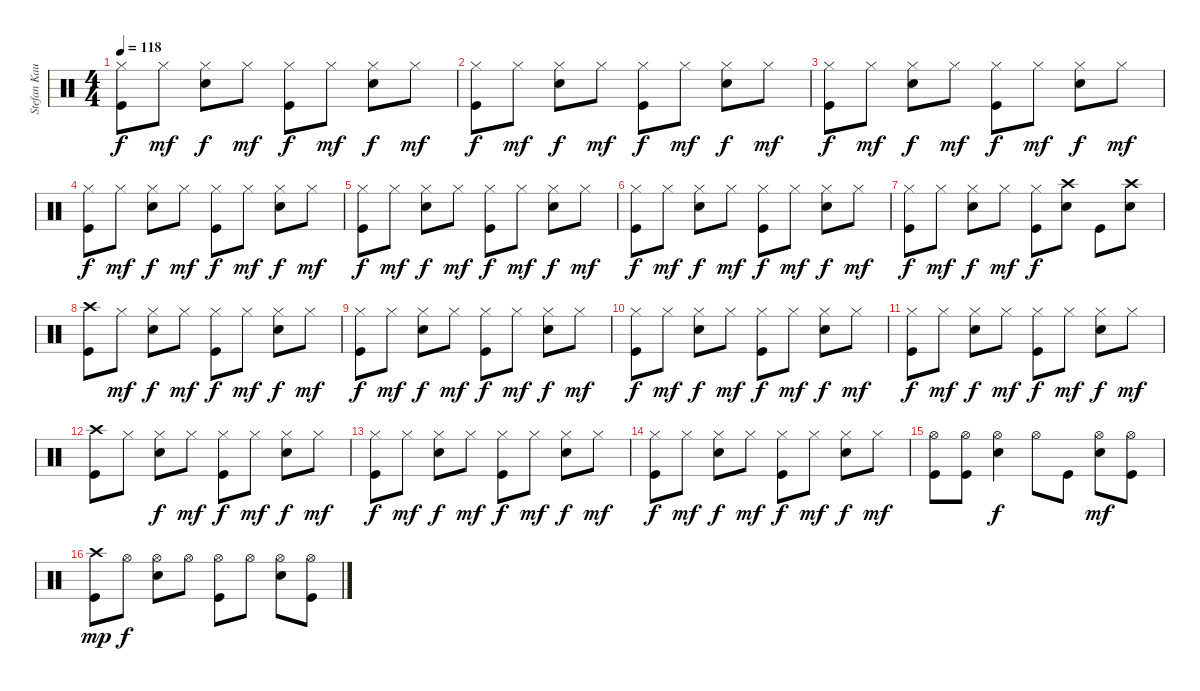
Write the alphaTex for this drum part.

\track ("Stefan Kaufmann" "Stefan Kau") {instrument percussion}
\staff {score}
\articulation defaults
\ts (4 4)
\tempo 118
\clef neutral
\ks c
("Hi-Hat (closed)" "Kick (hit)").8{dy f} "Hi-Hat (closed)".8{dy mf} ("Hi-Hat (closed)" "Snare (hit) 2").8{dy f} "Hi-Hat (closed)".8{dy mf} ("Hi-Hat (closed)" "Kick (hit)").8{dy f} "Hi-Hat (closed)".8{dy mf} ("Hi-Hat (closed)" "Snare (hit) 2").8{dy f} "Hi-Hat (closed)".8{dy mf} |
("Hi-Hat (closed)" "Kick (hit)").8{dy f} "Hi-Hat (closed)".8{dy mf} ("Hi-Hat (closed)" "Snare (hit) 2").8{dy f} "Hi-Hat (closed)".8{dy mf} ("Hi-Hat (closed)" "Kick (hit)").8{dy f} "Hi-Hat (closed)".8{dy mf} ("Hi-Hat (closed)" "Snare (hit) 2").8{dy f} "Hi-Hat (closed)".8{dy mf} |
("Hi-Hat (closed)" "Kick (hit)").8{dy f} "Hi-Hat (closed)".8{dy mf} ("Hi-Hat (closed)" "Snare (hit) 2").8{dy f} "Hi-Hat (closed)".8{dy mf} ("Hi-Hat (closed)" "Kick (hit)").8{dy f} "Hi-Hat (closed)".8{dy mf} ("Hi-Hat (closed)" "Snare (hit) 2").8{dy f} "Hi-Hat (closed)".8{dy mf} |
("Hi-Hat (closed)" "Kick (hit)").8{dy f} "Hi-Hat (closed)".8{dy mf} ("Hi-Hat (closed)" "Snare (hit) 2").8{dy f} "Hi-Hat (closed)".8{dy mf} ("Hi-Hat (closed)" "Kick (hit)").8{dy f} "Hi-Hat (closed)".8{dy mf} ("Hi-Hat (closed)" "Snare (hit) 2").8{dy f} "Hi-Hat (closed)".8{dy mf} |
("Hi-Hat (closed)" "Kick (hit)").8{dy f} "Hi-Hat (closed)".8{dy mf} ("Hi-Hat (closed)" "Snare (hit) 2").8{dy f} "Hi-Hat (closed)".8{dy mf} ("Hi-Hat (closed)" "Kick (hit)").8{dy f} "Hi-Hat (closed)".8{dy mf} ("Hi-Hat (closed)" "Snare (hit) 2").8{dy f} "Hi-Hat (closed)".8{dy mf} |
("Hi-Hat (closed)" "Kick (hit)").8{dy f} "Hi-Hat (closed)".8{dy mf} ("Hi-Hat (closed)" "Snare (hit) 2").8{dy f} "Hi-Hat (closed)".8{dy mf} ("Hi-Hat (closed)" "Kick (hit)").8{dy f} "Hi-Hat (closed)".8{dy mf} ("Hi-Hat (closed)" "Snare (hit) 2").8{dy f} "Hi-Hat (closed)".8{dy mf} |
("Hi-Hat (closed)" "Kick (hit)").8{dy f} "Hi-Hat (closed)".8{dy mf} ("Hi-Hat (closed)" "Snare (hit) 2").8{dy f} "Hi-Hat (closed)".8{dy mf} ("Hi-Hat (closed)" "Kick (hit)").8{dy f} ("Crash high (hit)" "Snare (hit) 2").8 "Kick (hit)".8 ("Crash high (hit)" "Snare (hit) 2").8 |
("Crash high (hit)" "Kick (hit)").8 "Hi-Hat (closed)".8{dy mf} ("Hi-Hat (closed)" "Snare (hit) 2").8{dy f} "Hi-Hat (closed)".8{dy mf} ("Hi-Hat (closed)" "Kick (hit)").8{dy f} "Hi-Hat (closed)".8{dy mf} ("Hi-Hat (closed)" "Snare (hit) 2").8{dy f} "Hi-Hat (closed)".8{dy mf} |
("Hi-Hat (closed)" "Kick (hit)").8{dy f} "Hi-Hat (closed)".8{dy mf} ("Hi-Hat (closed)" "Snare (hit) 2").8{dy f} "Hi-Hat (closed)".8{dy mf} ("Hi-Hat (closed)" "Kick (hit)").8{dy f} "Hi-Hat (closed)".8{dy mf} ("Hi-Hat (closed)" "Snare (hit) 2").8{dy f} "Hi-Hat (closed)".8{dy mf} |
("Hi-Hat (closed)" "Kick (hit)").8{dy f} "Hi-Hat (closed)".8{dy mf} ("Hi-Hat (closed)" "Snare (hit) 2").8{dy f} "Hi-Hat (closed)".8{dy mf} ("Hi-Hat (closed)" "Kick (hit)").8{dy f} "Hi-Hat (closed)".8{dy mf} ("Hi-Hat (closed)" "Snare (hit) 2").8{dy f} "Hi-Hat (closed)".8{dy mf} |
("Hi-Hat (closed)" "Kick (hit)").8{dy f} "Hi-Hat (closed)".8{dy mf} ("Hi-Hat (closed)" "Snare (hit) 2").8{dy f} "Hi-Hat (closed)".8{dy mf} ("Hi-Hat (closed)" "Kick (hit)").8{dy f} "Hi-Hat (closed)".8{dy mf} ("Hi-Hat (closed)" "Snare (hit) 2").8{dy f} "Hi-Hat (closed)".8{dy mf} |
("Crash high (hit)" "Kick (hit)").8 "Hi-Hat (closed)".8 ("Hi-Hat (closed)" "Snare (hit) 2").8{dy f} "Hi-Hat (closed)".8{dy mf} ("Hi-Hat (closed)" "Kick (hit)").8{dy f} "Hi-Hat (closed)".8{dy mf} ("Hi-Hat (closed)" "Snare (hit) 2").8{dy f} "Hi-Hat (closed)".8{dy mf} |
("Hi-Hat (closed)" "Kick (hit)").8{dy f} "Hi-Hat (closed)".8{dy mf} ("Hi-Hat (closed)" "Snare (hit) 2").8{dy f} "Hi-Hat (closed)".8{dy mf} ("Hi-Hat (closed)" "Kick (hit)").8{dy f} "Hi-Hat (closed)".8{dy mf} ("Hi-Hat (closed)" "Snare (hit) 2").8{dy f} "Hi-Hat (closed)".8{dy mf} |
("Hi-Hat (closed)" "Kick (hit)").8{dy f} "Hi-Hat (closed)".8{dy mf} ("Hi-Hat (closed)" "Snare (hit) 2").8{dy f} "Hi-Hat (closed)".8{dy mf} ("Hi-Hat (closed)" "Kick (hit)").8{dy f} "Hi-Hat (closed)".8{dy mf} ("Hi-Hat (closed)" "Snare (hit) 2").8{dy f} "Hi-Hat (closed)".8{dy mf} |
("Hi-Hat (open)" "Kick (hit)").8 ("Hi-Hat (open)" "Kick (hit)").8 ("Hi-Hat (open)" "Snare (hit) 2").4{dy f} "Hi-Hat (open)".8 "Kick (hit)".8 ("Hi-Hat (open)" "Snare (hit) 2").8{dy mf} ("Hi-Hat (open)" "Kick (hit)").8 |
("Crash high (hit)" "Kick (hit)").8{dy mp} "Hi-Hat (open)".8{dy f} ("Hi-Hat (open)" "Snare (hit) 2").8 "Hi-Hat (open)".8 ("Hi-Hat (open)" "Kick (hit)").8 "Hi-Hat (open)".8 ("Hi-Hat (open)" "Snare (hit) 2").8 ("Hi-Hat (open)" "Kick (hit)").8
